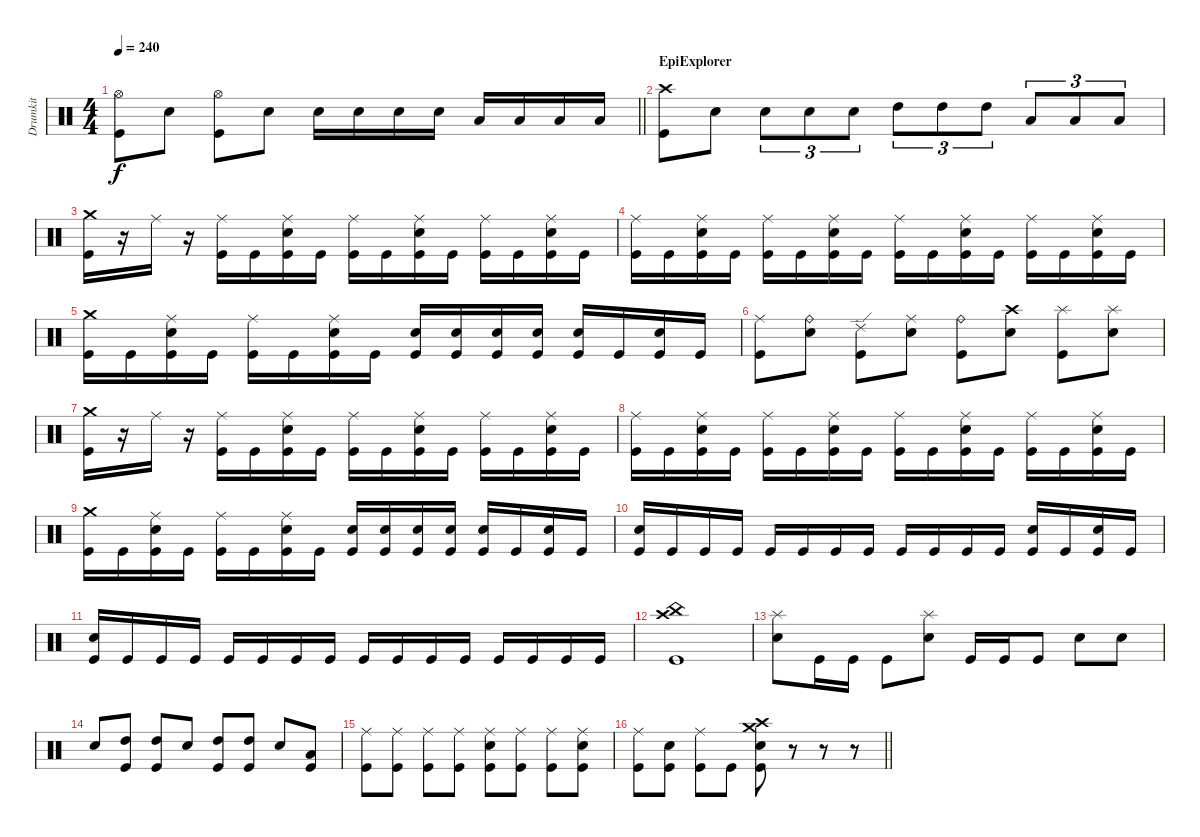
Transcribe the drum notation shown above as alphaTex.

\track ("Drumkit" "Drumkit") {instrument percussion}
\staff {score}
\articulation defaults
\ts (4 4)
\tempo 240
\clef neutral
\barLineRight lightlight
\ks c
("Hi-Hat (open)" "Kick (hit)").8{dy f} "Snare (hit) 2".8 ("Hi-Hat (open)" "Kick (hit)").8 "Snare (hit) 2".8 "Snare (hit) 2".16 "Snare (hit) 2".16 "Snare (hit) 2".16 "Snare (hit) 2".16 "Low Tom (hit)".16 "Low Tom (hit)".16 "Low Tom (hit)".16 "Low Tom (hit)".16 |
\section ("" "EpiExplorer")
("Crash high (hit)" "Kick (hit)").8 "Snare (hit) 2".8 "Snare (hit) 2".8{tu (3 2)} "Snare (hit) 2".8{tu (3 2)} "Snare (hit) 2".8{tu (3 2)} "High Tom (hit)".8{tu (3 2)} "High Tom (hit)".8{tu (3 2)} "High Tom (hit)".8{tu (3 2)} "Low Tom (hit)".8{tu (3 2)} "Low Tom (hit)".8{tu (3 2)} "Low Tom (hit)".8{tu (3 2)} |
("Crash medium (hit)" "Kick (hit)").16 r.16 "Ride (middle)".16 r.16 ("Ride (middle)" "Kick (hit)").16 "Kick (hit)".16 ("Ride (middle)" "Snare (hit) 2" "Kick (hit)").16 "Kick (hit)".16 ("Ride (middle)" "Kick (hit)").16 "Kick (hit)".16 ("Ride (middle)" "Snare (hit) 2" "Kick (hit)").16 "Kick (hit)".16 ("Ride (middle)" "Kick (hit)").16 "Kick (hit)".16 ("Ride (middle)" "Snare (hit) 2" "Kick (hit)").16 "Kick (hit)".16 |
("Ride (middle)" "Kick (hit)").16 "Kick (hit)".16 ("Ride (middle)" "Snare (hit) 2" "Kick (hit)").16 "Kick (hit)".16 ("Ride (middle)" "Kick (hit)").16 "Kick (hit)".16 ("Ride (middle)" "Snare (hit) 2" "Kick (hit)").16 "Kick (hit)".16 ("Ride (middle)" "Kick (hit)").16 "Kick (hit)".16 ("Ride (middle)" "Snare (hit) 2" "Kick (hit)").16 "Kick (hit)".16 ("Ride (middle)" "Kick (hit)").16 "Kick (hit)".16 ("Ride (middle)" "Snare (hit) 2" "Kick (hit)").16 "Kick (hit)".16 |
("Crash medium (hit)" "Kick (hit)").16 "Kick (hit)".16 ("Ride (middle)" "Snare (hit) 2" "Kick (hit)").16 "Kick (hit)".16 ("Ride (middle)" "Kick (hit)").16 "Kick (hit)".16 ("Ride (middle)" "Snare (hit) 2" "Kick (hit)").16 "Kick (hit)".16 ("Snare (hit) 2" "Kick (hit)").16 ("Snare (hit) 2" "Kick (hit)").16 ("Snare (hit) 2" "Kick (hit)").16 ("Snare (hit) 2" "Kick (hit)").16 ("Snare (hit) 2" "Kick (hit)").16 "Kick (hit)".16 ("Snare (hit) 2" "Kick (hit)").16 "Kick (hit)".16 |
("Ride (middle)" "Kick (hit)").8 ("Ride (bell)" "Snare (hit) 2").8 ("Ride (edge) 2" "Kick (hit)").8 ("Ride (middle)" "Snare (hit) 2").8 ("Ride (bell)" "Kick (hit)").8 ("Crash high (hit)" "Snare (hit) 2").8 ("Splash (hit)" "Kick (hit)").8 ("Splash (hit)" "Snare (hit) 2").8 |
("Crash medium (hit)" "Kick (hit)").16 r.16 "Ride (middle)".16 r.16 ("Ride (middle)" "Kick (hit)").16 "Kick (hit)".16 ("Ride (middle)" "Snare (hit) 2" "Kick (hit)").16 "Kick (hit)".16 ("Ride (middle)" "Kick (hit)").16 "Kick (hit)".16 ("Ride (middle)" "Snare (hit) 2" "Kick (hit)").16 "Kick (hit)".16 ("Ride (middle)" "Kick (hit)").16 "Kick (hit)".16 ("Ride (middle)" "Snare (hit) 2" "Kick (hit)").16 "Kick (hit)".16 |
("Ride (middle)" "Kick (hit)").16 "Kick (hit)".16 ("Ride (middle)" "Snare (hit) 2" "Kick (hit)").16 "Kick (hit)".16 ("Ride (middle)" "Kick (hit)").16 "Kick (hit)".16 ("Ride (middle)" "Snare (hit) 2" "Kick (hit)").16 "Kick (hit)".16 ("Ride (middle)" "Kick (hit)").16 "Kick (hit)".16 ("Ride (middle)" "Snare (hit) 2" "Kick (hit)").16 "Kick (hit)".16 ("Ride (middle)" "Kick (hit)").16 "Kick (hit)".16 ("Ride (middle)" "Snare (hit) 2" "Kick (hit)").16 "Kick (hit)".16 |
("Crash medium (hit)" "Kick (hit)").16 "Kick (hit)".16 ("Ride (middle)" "Snare (hit) 2" "Kick (hit)").16 "Kick (hit)".16 ("Ride (middle)" "Kick (hit)").16 "Kick (hit)".16 ("Ride (middle)" "Snare (hit) 2" "Kick (hit)").16 "Kick (hit)".16 ("Snare (hit) 2" "Kick (hit)").16 ("Snare (hit) 2" "Kick (hit)").16 ("Snare (hit) 2" "Kick (hit)").16 ("Snare (hit) 2" "Kick (hit)").16 ("Snare (hit) 2" "Kick (hit)").16 "Kick (hit)".16 ("Snare (hit) 2" "Kick (hit)").16 "Kick (hit)".16 |
("Snare (hit) 2" "Kick (hit)").16 "Kick (hit)".16 "Kick (hit)".16 "Kick (hit)".16 "Kick (hit)".16 "Kick (hit)".16 "Kick (hit)".16 "Kick (hit)".16 "Kick (hit)".16 "Kick (hit)".16 "Kick (hit)".16 "Kick (hit)".16 ("Snare (hit) 2" "Kick (hit)").16 "Kick (hit)".16 ("Snare (hit) 2" "Kick (hit)").16 "Kick (hit)".16 |
("Snare (hit) 2" "Kick (hit)").16 "Kick (hit)".16 "Kick (hit)".16 "Kick (hit)".16 "Kick (hit)".16 "Kick (hit)".16 "Kick (hit)".16 "Kick (hit)".16 "Kick (hit)".16 "Kick (hit)".16 "Kick (hit)".16 "Kick (hit)".16 "Kick (hit)".16 "Kick (hit)".16 "Kick (hit)".16 "Kick (hit)".16 |
("China (hit)" "Crash high (hit)" "Kick (hit)").1 |
("Splash (hit)" "Snare (hit) 2").8 "Kick (hit)".16 "Kick (hit)".16 "Kick (hit)".8 ("Splash (hit)" "Snare (hit) 2").8 "Kick (hit)".16 "Kick (hit)".16 "Kick (hit)".8 "Snare (hit) 2".8 "Snare (hit) 2".8 |
"Snare (hit) 2".8 ("High Tom (hit)" "Kick (hit)").8 ("High Tom (hit)" "Kick (hit)").8 "Snare (hit) 2".8 ("High Tom (hit)" "Kick (hit)").8 ("High Tom (hit)" "Kick (hit)").8 "Snare (hit) 2".8 ("Low Tom (hit)" "Kick (hit)").8 |
("Ride (middle)" "Kick (hit)").8 ("Ride (middle)" "Kick (hit)").8 ("Ride (middle)" "Kick (hit)").8 ("Ride (middle)" "Kick (hit)").8 ("Ride (middle)" "Snare (hit) 2" "Kick (hit)").8 ("Ride (middle)" "Kick (hit)").8 ("Ride (middle)" "Kick (hit)").8 ("Ride (middle)" "Snare (hit) 2" "Kick (hit)").8 |
\barLineRight lightlight
("Ride (middle)" "Kick (hit)").8 ("Snare (hit) 2" "Kick (hit)").8 ("Ride (middle)" "Kick (hit)").8 "Kick (hit)".8 ("Crash high (hit)" "Crash medium (hit)" "Snare (hit) 2" "Kick (hit)").8 r.8 r.8 r.8
